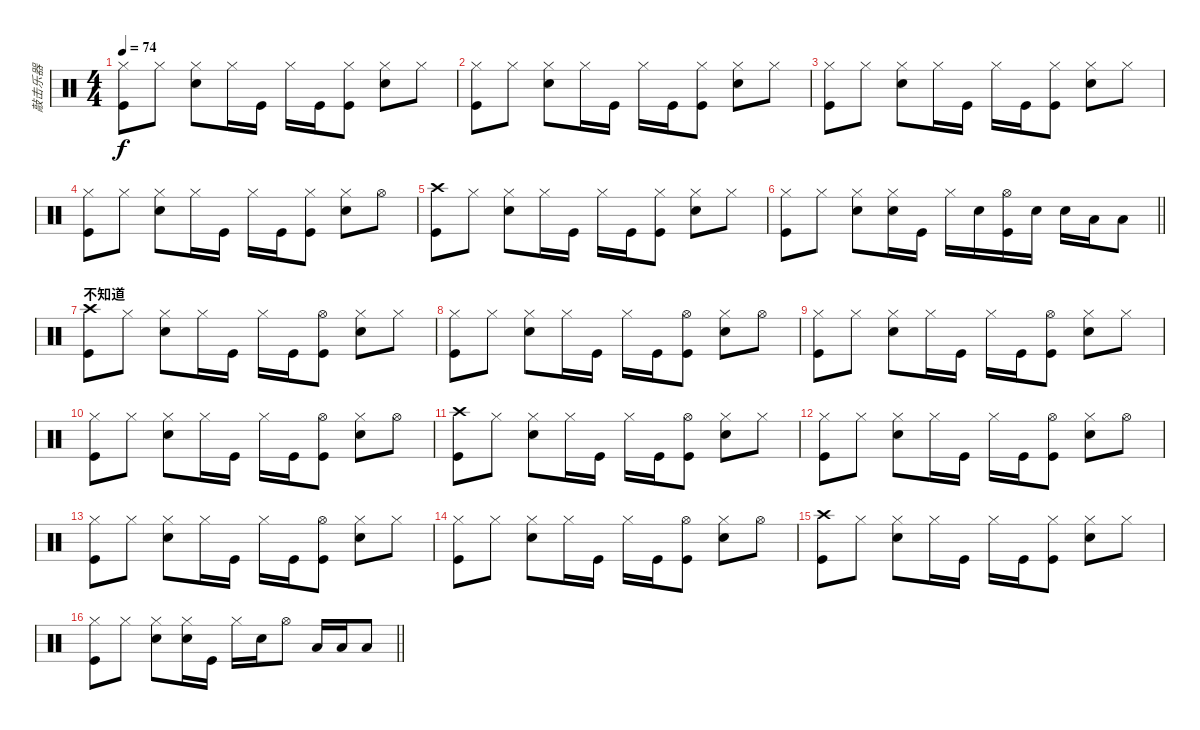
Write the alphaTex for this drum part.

\track ("敲击乐器" "敲击乐器") {instrument percussion}
\staff {score}
\articulation defaults
\ts (4 4)
\tempo 74
\clef neutral
\ks c
("Hi-Hat (closed)" "Kick (hit)").8{dy f} "Hi-Hat (closed)".8 ("Hi-Hat (closed)" "Snare (hit) 2").8 "Hi-Hat (closed)".16 "Kick (hit)".16 "Hi-Hat (closed)".16 "Kick (hit)".16 ("Hi-Hat (closed)" "Kick (hit)").8 ("Hi-Hat (closed)" "Snare (hit) 2").8 "Hi-Hat (closed)".8 |
("Hi-Hat (closed)" "Kick (hit)").8 "Hi-Hat (closed)".8 ("Hi-Hat (closed)" "Snare (hit) 2").8 "Hi-Hat (closed)".16 "Kick (hit)".16 "Hi-Hat (closed)".16 "Kick (hit)".16 ("Hi-Hat (closed)" "Kick (hit)").8 ("Hi-Hat (closed)" "Snare (hit) 2").8 "Hi-Hat (closed)".8 |
("Hi-Hat (closed)" "Kick (hit)").8 "Hi-Hat (closed)".8 ("Hi-Hat (closed)" "Snare (hit) 2").8 "Hi-Hat (closed)".16 "Kick (hit)".16 "Hi-Hat (closed)".16 "Kick (hit)".16 ("Hi-Hat (closed)" "Kick (hit)").8 ("Hi-Hat (closed)" "Snare (hit) 2").8 "Hi-Hat (closed)".8 |
("Hi-Hat (closed)" "Kick (hit)").8 "Hi-Hat (closed)".8 ("Hi-Hat (closed)" "Snare (hit) 2").8 "Hi-Hat (closed)".16 "Kick (hit)".16 "Hi-Hat (closed)".16 "Kick (hit)".16 ("Hi-Hat (closed)" "Kick (hit)").8 ("Hi-Hat (closed)" "Snare (hit) 2").8 "Hi-Hat (open)".8 |
("Crash high (hit)" "Kick (hit)").8 "Hi-Hat (closed)".8 ("Hi-Hat (closed)" "Snare (hit) 2").8 "Hi-Hat (closed)".16 "Kick (hit)".16 "Hi-Hat (closed)".16 "Kick (hit)".16 ("Hi-Hat (closed)" "Kick (hit)").8 ("Hi-Hat (closed)" "Snare (hit) 2").8 "Hi-Hat (closed)".8 |
\barLineRight lightlight
("Hi-Hat (closed)" "Kick (hit)").8 "Hi-Hat (closed)".8 ("Hi-Hat (closed)" "Snare (hit) 2").8 ("Hi-Hat (closed)" "Snare (hit) 2").16 "Kick (hit)".16 "Hi-Hat (closed)".16 "Snare (hit) 2".16 ("Hi-Hat (open)" "Kick (hit)").16 "Snare (hit) 2".16 "Snare (hit) 2".16 "Low Tom (hit)".16 "Low Floor Tom (hit)".8 |
\section ("" "不知道")
("Crash high (hit)" "Kick (hit)").8 "Hi-Hat (closed)".8 ("Hi-Hat (closed)" "Snare (hit) 2").8 "Hi-Hat (closed)".16 "Kick (hit)".16 "Hi-Hat (closed)".16 "Kick (hit)".16 ("Hi-Hat (open)" "Kick (hit)").8 ("Hi-Hat (closed)" "Snare (hit) 2").8 "Hi-Hat (closed)".8 |
("Hi-Hat (closed)" "Kick (hit)").8 "Hi-Hat (closed)".8 ("Hi-Hat (closed)" "Snare (hit) 2").8 "Hi-Hat (closed)".16 "Kick (hit)".16 "Hi-Hat (closed)".16 "Kick (hit)".16 ("Hi-Hat (open)" "Kick (hit)").8 ("Hi-Hat (closed)" "Snare (hit) 2").8 "Hi-Hat (open)".8 |
("Hi-Hat (closed)" "Kick (hit)").8 "Hi-Hat (closed)".8 ("Hi-Hat (closed)" "Snare (hit) 2").8 "Hi-Hat (closed)".16 "Kick (hit)".16 "Hi-Hat (closed)".16 "Kick (hit)".16 ("Hi-Hat (open)" "Kick (hit)").8 ("Hi-Hat (closed)" "Snare (hit) 2").8 "Hi-Hat (closed)".8 |
("Hi-Hat (closed)" "Kick (hit)").8 "Hi-Hat (closed)".8 ("Hi-Hat (closed)" "Snare (hit) 2").8 "Hi-Hat (closed)".16 "Kick (hit)".16 "Hi-Hat (closed)".16 "Kick (hit)".16 ("Hi-Hat (open)" "Kick (hit)").8 ("Hi-Hat (closed)" "Snare (hit) 2").8 "Hi-Hat (open)".8 |
("Crash high (hit)" "Kick (hit)").8 "Hi-Hat (closed)".8 ("Hi-Hat (closed)" "Snare (hit) 2").8 "Hi-Hat (closed)".16 "Kick (hit)".16 "Hi-Hat (closed)".16 "Kick (hit)".16 ("Hi-Hat (open)" "Kick (hit)").8 ("Hi-Hat (closed)" "Snare (hit) 2").8 "Hi-Hat (closed)".8 |
("Hi-Hat (closed)" "Kick (hit)").8 "Hi-Hat (closed)".8 ("Hi-Hat (closed)" "Snare (hit) 2").8 "Hi-Hat (closed)".16 "Kick (hit)".16 "Hi-Hat (closed)".16 "Kick (hit)".16 ("Hi-Hat (open)" "Kick (hit)").8 ("Hi-Hat (closed)" "Snare (hit) 2").8 "Hi-Hat (open)".8 |
("Hi-Hat (closed)" "Kick (hit)").8 "Hi-Hat (closed)".8 ("Hi-Hat (closed)" "Snare (hit) 2").8 "Hi-Hat (closed)".16 "Kick (hit)".16 "Hi-Hat (closed)".16 "Kick (hit)".16 ("Hi-Hat (open)" "Kick (hit)").8 ("Hi-Hat (closed)" "Snare (hit) 2").8 "Hi-Hat (closed)".8 |
("Hi-Hat (closed)" "Kick (hit)").8 "Hi-Hat (closed)".8 ("Hi-Hat (closed)" "Snare (hit) 2").8 "Hi-Hat (closed)".16 "Kick (hit)".16 "Hi-Hat (closed)".16 "Kick (hit)".16 ("Hi-Hat (open)" "Kick (hit)").8 ("Hi-Hat (closed)" "Snare (hit) 2").8 "Hi-Hat (open)".8 |
("Crash high (hit)" "Kick (hit)").8 "Hi-Hat (closed)".8 ("Hi-Hat (closed)" "Snare (hit) 2").8 "Hi-Hat (closed)".16 "Kick (hit)".16 "Hi-Hat (closed)".16 "Kick (hit)".16 ("Hi-Hat (closed)" "Kick (hit)").8 ("Hi-Hat (closed)" "Snare (hit) 2").8 "Hi-Hat (closed)".8 |
\barLineRight lightlight
("Hi-Hat (closed)" "Kick (hit)").8 "Hi-Hat (closed)".8 ("Hi-Hat (closed)" "Snare (hit) 2").8 ("Hi-Hat (closed)" "Snare (hit) 2").16 "Kick (hit)".16 "Hi-Hat (closed)".16 "Snare (hit) 2".16 "Hi-Hat (open)".8 "Low Tom (hit)".16 "Low Tom (hit)".16 "Low Floor Tom (hit)".8
